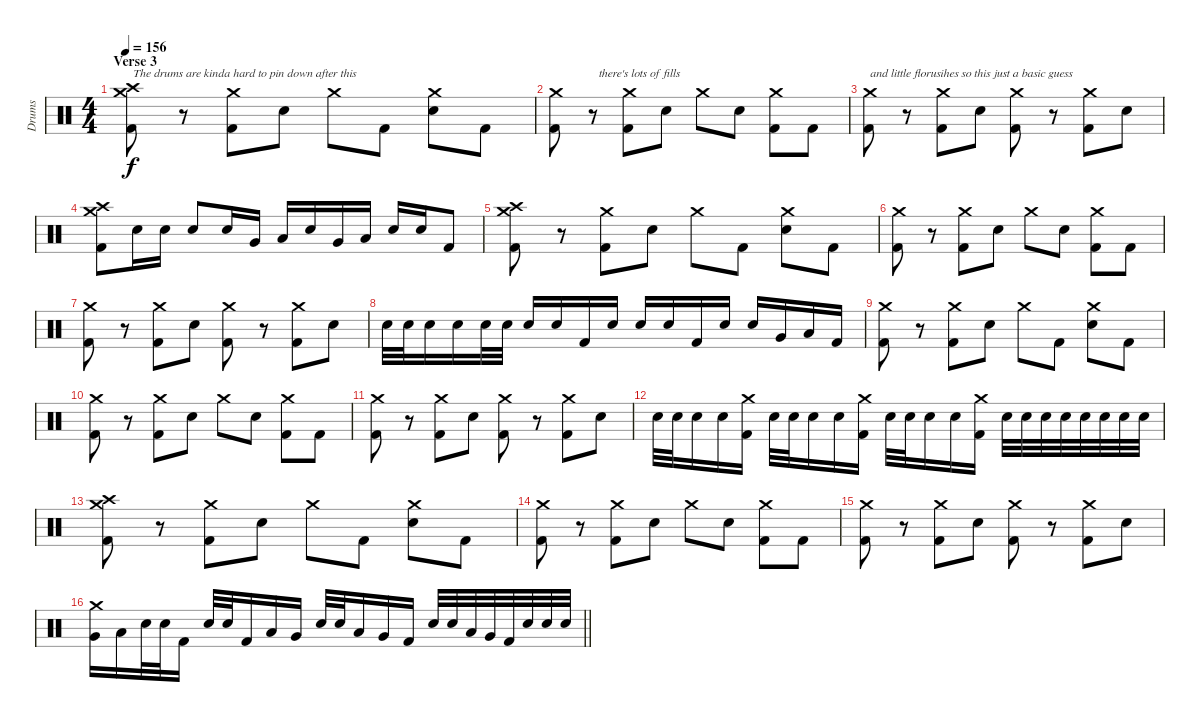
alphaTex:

\track ("Drums" "Drums") {instrument percussion}
\staff {score}
\articulation defaults
\ts (4 4)
\section ("" "Verse 3")
\tempo 156
\clef neutral
\ks c
("Crash medium (hit)" "Crash high (hit)" "Kick (hit) 2").8{txt "The drums are kinda hard to pin down after this" dy f} r.8 ("Crash medium (hit)" "Kick (hit) 2").8 "Electric Snare (hit)".8 "Crash medium (hit)".8 "Kick (hit) 2".8 ("Crash medium (hit)" "Electric Snare (hit)").8 "Kick (hit) 2".8 |
("Crash medium (hit)" "Kick (hit) 2").8 r.8{txt "  there's lots of fills"} ("Crash medium (hit)" "Kick (hit) 2").8 "Electric Snare (hit)".8 "Crash medium (hit)".8 "Electric Snare (hit)".8 ("Crash medium (hit)" "Kick (hit) 2").8 "Kick (hit) 2".8 |
("Crash medium (hit)" "Kick (hit) 2").8{txt "and little florusihes so this just a basic guess"} r.8 ("Crash medium (hit)" "Kick (hit) 2").8 "Electric Snare (hit)".8 ("Crash medium (hit)" "Kick (hit) 2").8 r.8 ("Crash medium (hit)" "Kick (hit) 2").8 "Electric Snare (hit)".8 |
("Crash medium (hit)" "Crash high (hit)" "Kick (hit) 2").8 "Electric Snare (hit)".16 "Electric Snare (hit)".16 "Electric Snare (hit)".8 "Electric Snare (hit)".16 "Very Low Tom (hit)".16 "Low Floor Tom (hit)".16 "Electric Snare (hit)".16 "Very Low Tom (hit)".16 "Low Floor Tom (hit)".16 "Electric Snare (hit)".16 "Electric Snare (hit)".16 "Kick (hit) 2".8 |
("Crash medium (hit)" "Crash high (hit)" "Kick (hit) 2").8 r.8 ("Crash medium (hit)" "Kick (hit) 2").8 "Electric Snare (hit)".8 "Crash medium (hit)".8 "Kick (hit) 2".8 ("Crash medium (hit)" "Electric Snare (hit)").8 "Kick (hit) 2".8 |
("Crash medium (hit)" "Kick (hit) 2").8 r.8 ("Crash medium (hit)" "Kick (hit) 2").8 "Electric Snare (hit)".8 "Crash medium (hit)".8 "Electric Snare (hit)".8 ("Crash medium (hit)" "Kick (hit) 2").8 "Kick (hit) 2".8 |
("Crash medium (hit)" "Kick (hit) 2").8 r.8 ("Crash medium (hit)" "Kick (hit) 2").8 "Electric Snare (hit)".8 ("Crash medium (hit)" "Kick (hit) 2").8 r.8 ("Crash medium (hit)" "Kick (hit) 2").8 "Electric Snare (hit)".8 |
"Electric Snare (hit)".32 "Electric Snare (hit)".32 "Electric Snare (hit)".16 "Electric Snare (hit)".16 "Electric Snare (hit)".32 "Electric Snare (hit)".32 "Electric Snare (hit)".16 "Electric Snare (hit)".16 "Kick (hit) 2".16 "Electric Snare (hit)".16 "Electric Snare (hit)".16 "Electric Snare (hit)".16 "Kick (hit) 2".16 "Electric Snare (hit)".16 "Electric Snare (hit)".16 "Very Low Tom (hit)".16 "Low Floor Tom (hit)".16 "Kick (hit) 2".16 |
("Crash medium (hit)" "Kick (hit) 2").8 r.8 ("Crash medium (hit)" "Kick (hit) 2").8 "Electric Snare (hit)".8 "Crash medium (hit)".8 "Kick (hit) 2".8 ("Crash medium (hit)" "Electric Snare (hit)").8 "Kick (hit) 2".8 |
("Crash medium (hit)" "Kick (hit) 2").8 r.8 ("Crash medium (hit)" "Kick (hit) 2").8 "Electric Snare (hit)".8 "Crash medium (hit)".8 "Electric Snare (hit)".8 ("Crash medium (hit)" "Kick (hit) 2").8 "Kick (hit) 2".8 |
("Crash medium (hit)" "Kick (hit) 2").8 r.8 ("Crash medium (hit)" "Kick (hit) 2").8 "Electric Snare (hit)".8 ("Crash medium (hit)" "Kick (hit) 2").8 r.8 ("Crash medium (hit)" "Kick (hit) 2").8 "Electric Snare (hit)".8 |
"Electric Snare (hit)".32 "Electric Snare (hit)".32 "Electric Snare (hit)".16 "Electric Snare (hit)".16 ("Crash medium (hit)" "Kick (hit) 2").16 "Electric Snare (hit)".32 "Electric Snare (hit)".32 "Electric Snare (hit)".16 "Electric Snare (hit)".16 ("Crash medium (hit)" "Kick (hit) 2").16 "Electric Snare (hit)".32 "Electric Snare (hit)".32 "Electric Snare (hit)".16 "Electric Snare (hit)".16 ("Crash medium (hit)" "Kick (hit) 2").16 "Electric Snare (hit)".32 "Electric Snare (hit)".32 "Electric Snare (hit)".32 "Electric Snare (hit)".32 "Electric Snare (hit)".32 "Electric Snare (hit)".32 "Electric Snare (hit)".32 "Electric Snare (hit)".32 |
("Crash medium (hit)" "Crash high (hit)" "Kick (hit) 2").8 r.8 ("Crash medium (hit)" "Kick (hit) 2").8 "Electric Snare (hit)".8 "Crash medium (hit)".8 "Kick (hit) 2".8 ("Crash medium (hit)" "Electric Snare (hit)").8 "Kick (hit) 2".8 |
("Crash medium (hit)" "Kick (hit) 2").8 r.8 ("Crash medium (hit)" "Kick (hit) 2").8 "Electric Snare (hit)".8 "Crash medium (hit)".8 "Electric Snare (hit)".8 ("Crash medium (hit)" "Kick (hit) 2").8 "Kick (hit) 2".8 |
("Crash medium (hit)" "Kick (hit) 2").8 r.8 ("Crash medium (hit)" "Kick (hit) 2").8 "Electric Snare (hit)".8 ("Crash medium (hit)" "Kick (hit) 2").8 r.8 ("Crash medium (hit)" "Kick (hit) 2").8 "Electric Snare (hit)".8 |
\barLineRight lightlight
("Crash medium (hit)" "Very Low Tom (hit)").16 "Low Floor Tom (hit)".16 "Electric Snare (hit)".32 "Electric Snare (hit)".32 "Kick (hit) 2".16 "Electric Snare (hit)".32 "Electric Snare (hit)".32 "Kick (hit) 2".16 "Low Floor Tom (hit)".16 "Very Low Tom (hit)".16 "Electric Snare (hit)".32 "Electric Snare (hit)".32 "Low Floor Tom (hit)".16 "Very Low Tom (hit)".16 "Kick (hit) 2".16 "Electric Snare (hit)".32 "Electric Snare (hit)".32 "Low Floor Tom (hit)".32 "Very Low Tom (hit)".32 "Kick (hit) 2".32 "Electric Snare (hit)".32 "Electric Snare (hit)".32 "Electric Snare (hit)".32
